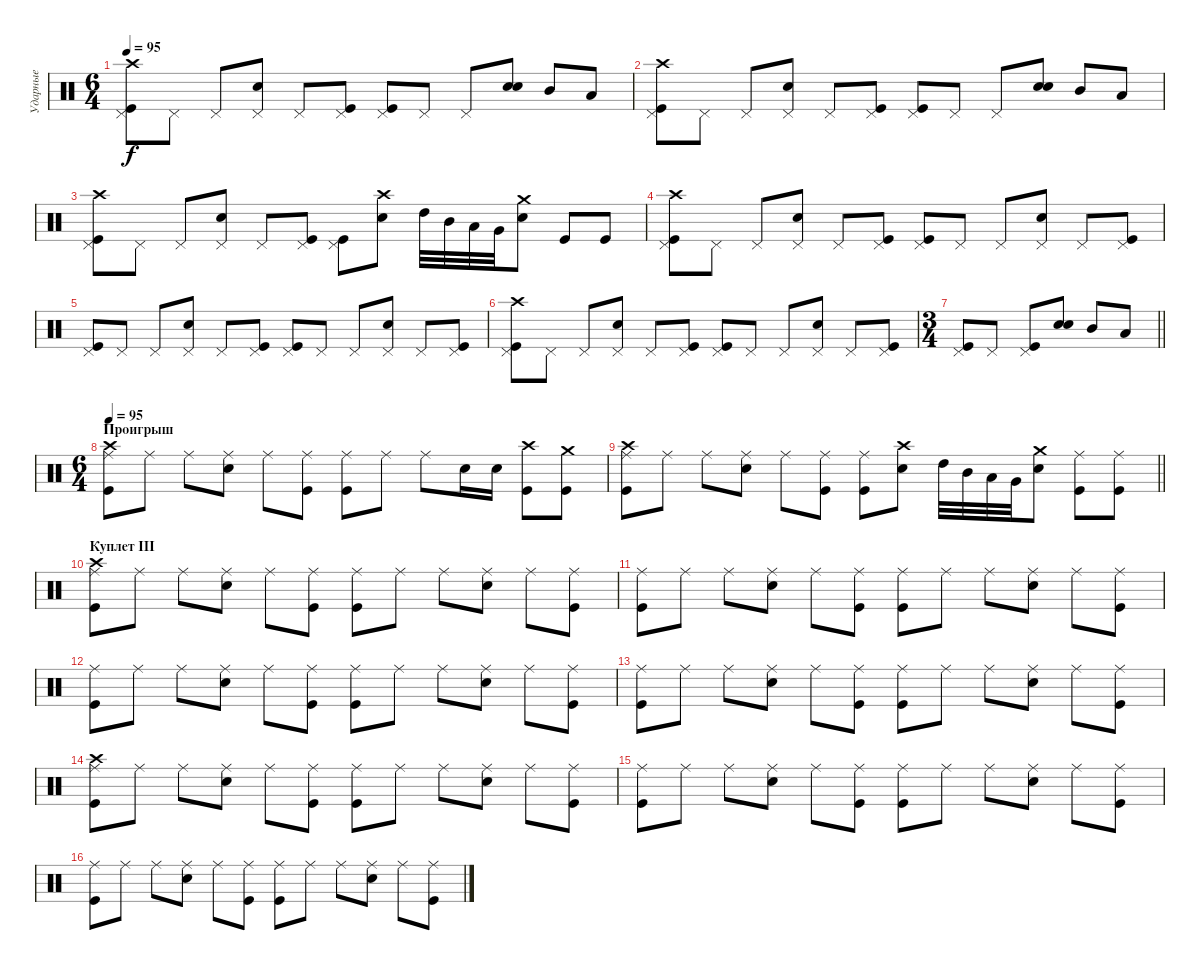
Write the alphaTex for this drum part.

\track ("Ударные" "Ударные") {instrument percussion}
\staff {score}
\articulation defaults
\ts (6 4)
\tempo 95
\clef neutral
\ks c
("Kick (hit)" "Pedal Hi-Hat (hit)" "Crash high (hit)").8{dy f} "Pedal Hi-Hat (hit)".8 "Pedal Hi-Hat (hit)".8 ("Pedal Hi-Hat (hit)" "Snare (hit) 2").8 "Pedal Hi-Hat (hit)".8 ("Kick (hit)" "Pedal Hi-Hat (hit)").8 ("Kick (hit)" "Pedal Hi-Hat (hit)").8 "Pedal Hi-Hat (hit)".8 "Pedal Hi-Hat (hit)".8 ("Snare (hit) 2" "Snare (hit) 2").8{bd 120} "Mid Tom (hit)".8 "Low Tom (hit)".8 |
("Kick (hit)" "Pedal Hi-Hat (hit)" "Crash high (hit)").8 "Pedal Hi-Hat (hit)".8 "Pedal Hi-Hat (hit)".8 ("Pedal Hi-Hat (hit)" "Snare (hit) 2").8 "Pedal Hi-Hat (hit)".8 ("Kick (hit)" "Pedal Hi-Hat (hit)").8 ("Kick (hit)" "Pedal Hi-Hat (hit)").8 "Pedal Hi-Hat (hit)".8 "Pedal Hi-Hat (hit)".8 ("Snare (hit) 2" "Snare (hit) 2").8{bd 120} "Mid Tom (hit)".8 "Low Tom (hit)".8 |
("Kick (hit)" "Pedal Hi-Hat (hit)" "Crash high (hit)").8 "Pedal Hi-Hat (hit)".8 "Pedal Hi-Hat (hit)".8 ("Pedal Hi-Hat (hit)" "Snare (hit) 2").8 "Pedal Hi-Hat (hit)".8 ("Kick (hit)" "Pedal Hi-Hat (hit)").8 ("Kick (hit)" "Pedal Hi-Hat (hit)").8 ("Crash high (hit)" "Snare (hit) 2").8 "High Tom (hit)".32 "Mid Tom (hit)".32 "Low Tom (hit)".32 "Very Low Tom (hit)".32 ("Crash medium (hit)" "Snare (hit) 2").8 "Kick (hit)".8 "Kick (hit)".8 |
("Kick (hit)" "Pedal Hi-Hat (hit)" "Crash high (hit)").8 "Pedal Hi-Hat (hit)".8 "Pedal Hi-Hat (hit)".8 ("Pedal Hi-Hat (hit)" "Snare (hit) 2").8 "Pedal Hi-Hat (hit)".8 ("Kick (hit)" "Pedal Hi-Hat (hit)").8 ("Kick (hit)" "Pedal Hi-Hat (hit)").8 "Pedal Hi-Hat (hit)".8 "Pedal Hi-Hat (hit)".8 ("Pedal Hi-Hat (hit)" "Snare (hit) 2").8 "Pedal Hi-Hat (hit)".8 ("Kick (hit)" "Pedal Hi-Hat (hit)").8 |
("Kick (hit)" "Pedal Hi-Hat (hit)").8 "Pedal Hi-Hat (hit)".8 "Pedal Hi-Hat (hit)".8 ("Pedal Hi-Hat (hit)" "Snare (hit) 2").8 "Pedal Hi-Hat (hit)".8 ("Kick (hit)" "Pedal Hi-Hat (hit)").8 ("Kick (hit)" "Pedal Hi-Hat (hit)").8 "Pedal Hi-Hat (hit)".8 "Pedal Hi-Hat (hit)".8 ("Pedal Hi-Hat (hit)" "Snare (hit) 2").8 "Pedal Hi-Hat (hit)".8 ("Kick (hit)" "Pedal Hi-Hat (hit)").8 |
("Kick (hit)" "Pedal Hi-Hat (hit)" "Crash high (hit)").8 "Pedal Hi-Hat (hit)".8 "Pedal Hi-Hat (hit)".8 ("Pedal Hi-Hat (hit)" "Snare (hit) 2").8 "Pedal Hi-Hat (hit)".8 ("Kick (hit)" "Pedal Hi-Hat (hit)").8 ("Kick (hit)" "Pedal Hi-Hat (hit)").8 "Pedal Hi-Hat (hit)".8 "Pedal Hi-Hat (hit)".8 ("Pedal Hi-Hat (hit)" "Snare (hit) 2").8 "Pedal Hi-Hat (hit)".8 ("Kick (hit)" "Pedal Hi-Hat (hit)").8 |
\ts (3 4)
\barLineRight lightlight
("Kick (hit)" "Pedal Hi-Hat (hit)").8 "Pedal Hi-Hat (hit)".8 ("Kick (hit)" "Pedal Hi-Hat (hit)").8 ("Snare (hit) 2" "Snare (hit) 2").8{bd 120} "Mid Tom (hit)".8 "Low Tom (hit)".8 |
\ts (6 4)
\section ("" "Проигрыш")
\tempo 95
("Kick (hit)" "Ride (middle)" "Crash high (hit)").8 "Ride (middle)".8 "Ride (middle)".8 ("Ride (middle)" "Snare (hit) 2").8 "Ride (middle)".8 ("Kick (hit)" "Ride (middle)").8 ("Kick (hit)" "Ride (middle)").8 "Ride (middle)".8 "Ride (middle)".8 "Snare (hit) 2".16 "Snare (hit) 2".16 ("Kick (hit)" "Crash high (hit)").8 ("Kick (hit)" "Crash medium (hit)").8 |
\barLineRight lightlight
("Kick (hit)" "Ride (middle)" "Crash high (hit)").8 "Ride (middle)".8 "Ride (middle)".8 ("Ride (middle)" "Snare (hit) 2").8 "Ride (middle)".8 ("Kick (hit)" "Ride (middle)").8 ("Kick (hit)" "Ride (middle)").8 ("Crash high (hit)" "Snare (hit) 2").8 "High Tom (hit)".32 "Mid Tom (hit)".32 "Low Tom (hit)".32 "Very Low Tom (hit)".32 ("Crash medium (hit)" "Snare (hit) 2").8 ("Kick (hit)" "Ride (middle)").8 ("Kick (hit)" "Ride (middle)").8 |
\section ("" "Куплет III")
("Kick (hit)" "Ride (middle)" "Crash high (hit)").8 "Ride (middle)".8 "Ride (middle)".8 ("Ride (middle)" "Snare (hit) 2").8 "Ride (middle)".8 ("Kick (hit)" "Ride (middle)").8 ("Kick (hit)" "Ride (middle)").8 "Ride (middle)".8 "Ride (middle)".8 ("Ride (middle)" "Snare (hit) 2").8 "Ride (middle)".8 ("Kick (hit)" "Ride (middle)").8 |
("Kick (hit)" "Ride (middle)").8 "Ride (middle)".8 "Ride (middle)".8 ("Ride (middle)" "Snare (hit) 2").8 "Ride (middle)".8 ("Kick (hit)" "Ride (middle)").8 ("Kick (hit)" "Ride (middle)").8 "Ride (middle)".8 "Ride (middle)".8 ("Ride (middle)" "Snare (hit) 2").8 "Ride (middle)".8 ("Kick (hit)" "Ride (middle)").8 |
("Kick (hit)" "Ride (middle)").8 "Ride (middle)".8 "Ride (middle)".8 ("Ride (middle)" "Snare (hit) 2").8 "Ride (middle)".8 ("Kick (hit)" "Ride (middle)").8 ("Kick (hit)" "Ride (middle)").8 "Ride (middle)".8 "Ride (middle)".8 ("Ride (middle)" "Snare (hit) 2").8 "Ride (middle)".8 ("Kick (hit)" "Ride (middle)").8 |
("Kick (hit)" "Ride (middle)").8 "Ride (middle)".8 "Ride (middle)".8 ("Ride (middle)" "Snare (hit) 2").8 "Ride (middle)".8 ("Kick (hit)" "Ride (middle)").8 ("Kick (hit)" "Ride (middle)").8 "Ride (middle)".8 "Ride (middle)".8 ("Ride (middle)" "Snare (hit) 2").8 "Ride (middle)".8 ("Kick (hit)" "Ride (middle)").8 |
("Kick (hit)" "Ride (middle)" "Crash high (hit)").8 "Ride (middle)".8 "Ride (middle)".8 ("Ride (middle)" "Snare (hit) 2").8 "Ride (middle)".8 ("Kick (hit)" "Ride (middle)").8 ("Kick (hit)" "Ride (middle)").8 "Ride (middle)".8 "Ride (middle)".8 ("Ride (middle)" "Snare (hit) 2").8 "Ride (middle)".8 ("Kick (hit)" "Ride (middle)").8 |
("Kick (hit)" "Ride (middle)").8 "Ride (middle)".8 "Ride (middle)".8 ("Ride (middle)" "Snare (hit) 2").8 "Ride (middle)".8 ("Kick (hit)" "Ride (middle)").8 ("Kick (hit)" "Ride (middle)").8 "Ride (middle)".8 "Ride (middle)".8 ("Ride (middle)" "Snare (hit) 2").8 "Ride (middle)".8 ("Kick (hit)" "Ride (middle)").8 |
("Kick (hit)" "Ride (middle)").8 "Ride (middle)".8 "Ride (middle)".8 ("Ride (middle)" "Snare (hit) 2").8 "Ride (middle)".8 ("Kick (hit)" "Ride (middle)").8 ("Kick (hit)" "Ride (middle)").8 "Ride (middle)".8 "Ride (middle)".8 ("Ride (middle)" "Snare (hit) 2").8 "Ride (middle)".8 ("Kick (hit)" "Ride (middle)").8
